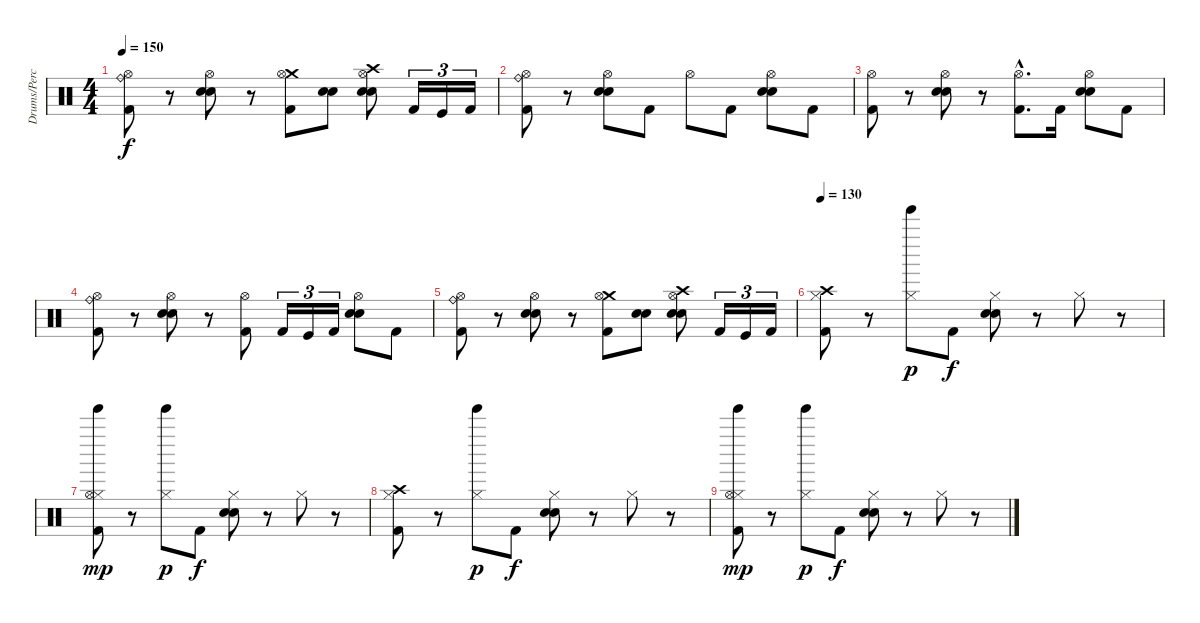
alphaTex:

\track ("Drums/Percussion" "Drums/Perc") {instrument percussion}
\staff {score}
\articulation defaults
\ts (4 4)
\tempo 150
\clef neutral
\ks c
("Ride (bell)" "Hi-Hat (open)" "Kick (hit) 2").8{dy f} r.8 ("Hi-Hat (open)" "Electric Snare (hit)" "Snare (hit) 2").8 r.8 ("Crash medium (hit)" "Hi-Hat (open)" "Kick (hit) 2").8 ("Electric Snare (hit)" "Snare (hit) 2").8 ("Crash high (hit)" "Hi-Hat (open)" "Electric Snare (hit)" "Snare (hit) 2").8 "Kick (hit) 2".16{tu (3 2)} "Kick (hit)".16{tu (3 2)} "Kick (hit) 2".16{tu (3 2)} |
("Ride (bell)" "Hi-Hat (open)" "Kick (hit) 2").8 r.8 ("Hi-Hat (open)" "Electric Snare (hit)" "Snare (hit) 2").8 "Kick (hit) 2".8 "Hi-Hat (open)".8 "Kick (hit) 2".8 ("Hi-Hat (open)" "Electric Snare (hit)" "Snare (hit) 2").8 "Kick (hit) 2".8 |
("Hi-Hat (open)" "Kick (hit) 2").8 r.8 ("Hi-Hat (open)" "Electric Snare (hit)" "Snare (hit) 2").8 r.8 ("Hi-Hat (open)"{hac} "Kick (hit) 2"{hac}).8{d} "Kick (hit) 2".16 ("Hi-Hat (open)" "Electric Snare (hit)" "Snare (hit) 2").8 "Kick (hit) 2".8 |
("Ride (bell)" "Hi-Hat (open)" "Kick (hit) 2").8 r.8 ("Hi-Hat (open)" "Electric Snare (hit)" "Snare (hit) 2").8 r.8 ("Hi-Hat (open)" "Kick (hit) 2").8 "Kick (hit) 2".16{tu (3 2)} "Kick (hit)".16{tu (3 2)} "Kick (hit) 2".16{tu (3 2)} ("Hi-Hat (open)" "Electric Snare (hit)" "Snare (hit) 2").8 "Kick (hit) 2".8 |
("Ride (bell)" "Hi-Hat (open)" "Kick (hit) 2").8 r.8 ("Hi-Hat (open)" "Electric Snare (hit)" "Snare (hit) 2").8 r.8 ("Crash medium (hit)" "Hi-Hat (open)" "Kick (hit) 2").8 ("Electric Snare (hit)" "Snare (hit) 2").8 ("Crash high (hit)" "Hi-Hat (open)" "Electric Snare (hit)" "Snare (hit) 2").8 "Kick (hit) 2".16{tu (3 2)} "Kick (hit)".16{tu (3 2)} "Kick (hit) 2".16{tu (3 2)} |
\tempo 130
("Hi-Hat (closed)" "Crash high (hit)" "Kick (hit) 2").8 r.8 ("Hi-Hat (closed)" "Tinkle Bell (hit)").8{dy p} "Kick (hit) 2".8{dy f} ("Hi-Hat (closed)" "Snare (hit) 2" "Electric Snare (hit)").8 r.8 "Hi-Hat (closed)".8 r.8 |
("Hi-Hat (closed)" "Hi-Hat (open)" "Tinkle Bell (hit)" "Kick (hit) 2").8{dy mp} r.8 ("Hi-Hat (closed)" "Tinkle Bell (hit)").8{dy p} "Kick (hit) 2".8{dy f} ("Hi-Hat (closed)" "Snare (hit) 2" "Electric Snare (hit)").8 r.8 "Hi-Hat (closed)".8 r.8 |
("Hi-Hat (closed)" "Crash high (hit)" "Kick (hit) 2").8 r.8 ("Hi-Hat (closed)" "Tinkle Bell (hit)").8{dy p} "Kick (hit) 2".8{dy f} ("Hi-Hat (closed)" "Snare (hit) 2" "Electric Snare (hit)").8 r.8 "Hi-Hat (closed)".8 r.8 |
("Hi-Hat (closed)" "Hi-Hat (open)" "Tinkle Bell (hit)" "Kick (hit) 2").8{dy mp} r.8 ("Hi-Hat (closed)" "Tinkle Bell (hit)").8{dy p} "Kick (hit) 2".8{dy f} ("Hi-Hat (closed)" "Snare (hit) 2" "Electric Snare (hit)").8 r.8 "Hi-Hat (closed)".8 r.8
